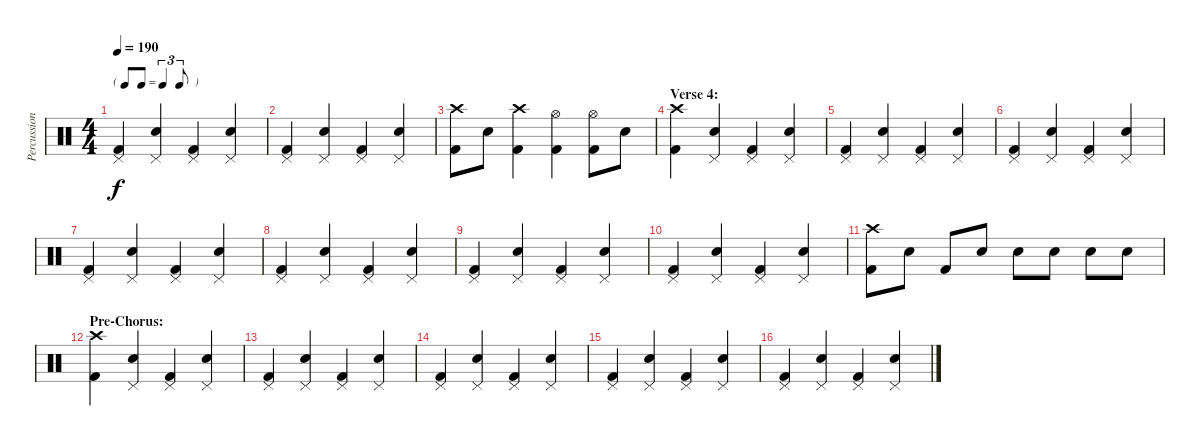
\track ("Percussion" "Percussion") {instrument percussion}
\staff {score}
\articulation defaults
\ts (4 4)
\tf triplet8th
\tempo 190
\clef neutral
\ks c
("Pedal Hi-Hat (hit)" "Kick (hit) 2").4{dy f} ("Pedal Hi-Hat (hit)" "Electric Snare (hit)").4 ("Pedal Hi-Hat (hit)" "Kick (hit) 2").4 ("Pedal Hi-Hat (hit)" "Electric Snare (hit)").4 |
("Pedal Hi-Hat (hit)" "Kick (hit) 2").4 ("Pedal Hi-Hat (hit)" "Electric Snare (hit)").4 ("Pedal Hi-Hat (hit)" "Kick (hit) 2").4 ("Pedal Hi-Hat (hit)" "Electric Snare (hit)").4 |
("Crash high (hit)" "Kick (hit) 2").8 "Electric Snare (hit)".8 ("Crash high (hit)" "Kick (hit) 2").4 ("Hi-Hat (open)" "Kick (hit) 2").4 ("Hi-Hat (open)" "Kick (hit) 2").8 "Electric Snare (hit)".8 |
\section ("" "Verse 4:")
("Crash high (hit)" "Kick (hit) 2").4 ("Pedal Hi-Hat (hit)" "Electric Snare (hit)").4 ("Pedal Hi-Hat (hit)" "Kick (hit) 2").4 ("Pedal Hi-Hat (hit)" "Electric Snare (hit)").4 |
("Pedal Hi-Hat (hit)" "Kick (hit) 2").4 ("Pedal Hi-Hat (hit)" "Electric Snare (hit)").4 ("Pedal Hi-Hat (hit)" "Kick (hit) 2").4 ("Pedal Hi-Hat (hit)" "Electric Snare (hit)").4 |
("Pedal Hi-Hat (hit)" "Kick (hit) 2").4 ("Pedal Hi-Hat (hit)" "Electric Snare (hit)").4 ("Pedal Hi-Hat (hit)" "Kick (hit) 2").4 ("Pedal Hi-Hat (hit)" "Electric Snare (hit)").4 |
("Pedal Hi-Hat (hit)" "Kick (hit) 2").4 ("Pedal Hi-Hat (hit)" "Electric Snare (hit)").4 ("Pedal Hi-Hat (hit)" "Kick (hit) 2").4 ("Pedal Hi-Hat (hit)" "Electric Snare (hit)").4 |
("Pedal Hi-Hat (hit)" "Kick (hit) 2").4 ("Pedal Hi-Hat (hit)" "Electric Snare (hit)").4 ("Pedal Hi-Hat (hit)" "Kick (hit) 2").4 ("Pedal Hi-Hat (hit)" "Electric Snare (hit)").4 |
("Pedal Hi-Hat (hit)" "Kick (hit) 2").4 ("Pedal Hi-Hat (hit)" "Electric Snare (hit)").4 ("Pedal Hi-Hat (hit)" "Kick (hit) 2").4 ("Pedal Hi-Hat (hit)" "Electric Snare (hit)").4 |
("Pedal Hi-Hat (hit)" "Kick (hit) 2").4 ("Pedal Hi-Hat (hit)" "Electric Snare (hit)").4 ("Pedal Hi-Hat (hit)" "Kick (hit) 2").4 ("Pedal Hi-Hat (hit)" "Electric Snare (hit)").4 |
("Crash high (hit)" "Kick (hit) 2").8 "Electric Snare (hit)".8 "Kick (hit) 2".8 "Electric Snare (hit)".8 "Electric Snare (hit)".8 "Electric Snare (hit)".8 "Electric Snare (hit)".8 "Electric Snare (hit)".8 |
\section ("" "Pre-Chorus:")
("Crash high (hit)" "Kick (hit) 2").4 ("Pedal Hi-Hat (hit)" "Electric Snare (hit)").4 ("Pedal Hi-Hat (hit)" "Kick (hit) 2").4 ("Pedal Hi-Hat (hit)" "Electric Snare (hit)").4 |
("Pedal Hi-Hat (hit)" "Kick (hit) 2").4 ("Pedal Hi-Hat (hit)" "Electric Snare (hit)").4 ("Pedal Hi-Hat (hit)" "Kick (hit) 2").4 ("Pedal Hi-Hat (hit)" "Electric Snare (hit)").4 |
("Pedal Hi-Hat (hit)" "Kick (hit) 2").4 ("Pedal Hi-Hat (hit)" "Electric Snare (hit)").4 ("Pedal Hi-Hat (hit)" "Kick (hit) 2").4 ("Pedal Hi-Hat (hit)" "Electric Snare (hit)").4 |
("Pedal Hi-Hat (hit)" "Kick (hit) 2").4 ("Pedal Hi-Hat (hit)" "Electric Snare (hit)").4 ("Pedal Hi-Hat (hit)" "Kick (hit) 2").4 ("Pedal Hi-Hat (hit)" "Electric Snare (hit)").4 |
("Pedal Hi-Hat (hit)" "Kick (hit) 2").4 ("Pedal Hi-Hat (hit)" "Electric Snare (hit)").4 ("Pedal Hi-Hat (hit)" "Kick (hit) 2").4 ("Pedal Hi-Hat (hit)" "Electric Snare (hit)").4
